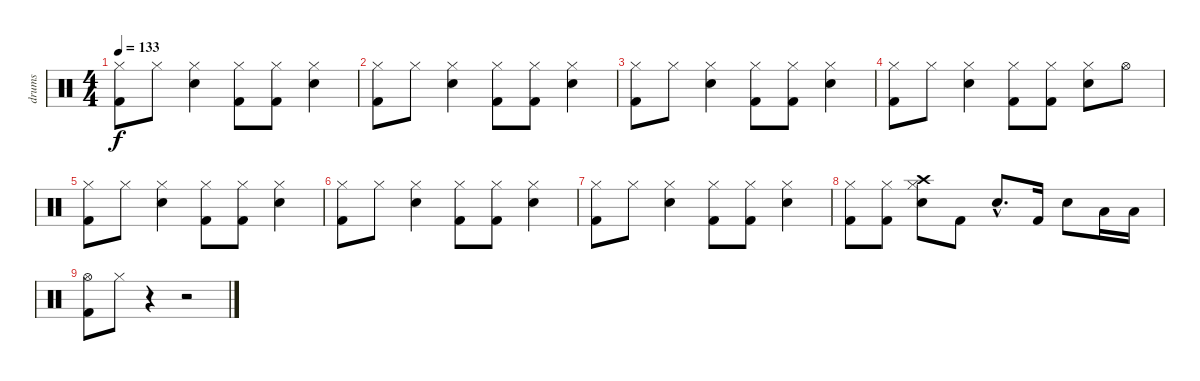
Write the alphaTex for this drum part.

\track ("drums" "drums") {instrument percussion}
\staff {score}
\articulation defaults
\ts (4 4)
\tempo 133
\clef neutral
\ks c
("Hi-Hat (closed)" "Kick (hit) 2").8{dy f} "Hi-Hat (closed)".8 ("Hi-Hat (closed)" "Snare (hit) 2").4 ("Hi-Hat (closed)" "Kick (hit) 2").8 ("Hi-Hat (closed)" "Kick (hit) 2").8 ("Hi-Hat (closed)" "Snare (hit) 2").4 |
("Hi-Hat (closed)" "Kick (hit) 2").8 "Hi-Hat (closed)".8 ("Hi-Hat (closed)" "Snare (hit) 2").4 ("Hi-Hat (closed)" "Kick (hit) 2").8 ("Hi-Hat (closed)" "Kick (hit) 2").8 ("Hi-Hat (closed)" "Snare (hit) 2").4 |
("Hi-Hat (closed)" "Kick (hit) 2").8 "Hi-Hat (closed)".8 ("Hi-Hat (closed)" "Snare (hit) 2").4 ("Hi-Hat (closed)" "Kick (hit) 2").8 ("Hi-Hat (closed)" "Kick (hit) 2").8 ("Hi-Hat (closed)" "Snare (hit) 2").4 |
("Hi-Hat (closed)" "Kick (hit) 2").8 "Hi-Hat (closed)".8 ("Hi-Hat (closed)" "Snare (hit) 2").4 ("Hi-Hat (closed)" "Kick (hit) 2").8 ("Hi-Hat (closed)" "Kick (hit) 2").8 ("Hi-Hat (closed)" "Snare (hit) 2").8 "Hi-Hat (open)".8 |
("Hi-Hat (closed)" "Kick (hit) 2").8 "Hi-Hat (closed)".8 ("Hi-Hat (closed)" "Snare (hit) 2").4 ("Hi-Hat (closed)" "Kick (hit) 2").8 ("Hi-Hat (closed)" "Kick (hit) 2").8 ("Hi-Hat (closed)" "Snare (hit) 2").4 |
("Hi-Hat (closed)" "Kick (hit) 2").8 "Hi-Hat (closed)".8 ("Hi-Hat (closed)" "Snare (hit) 2").4 ("Hi-Hat (closed)" "Kick (hit) 2").8 ("Hi-Hat (closed)" "Kick (hit) 2").8 ("Hi-Hat (closed)" "Snare (hit) 2").4 |
("Hi-Hat (closed)" "Kick (hit) 2").8 "Hi-Hat (closed)".8 ("Hi-Hat (closed)" "Snare (hit) 2").4 ("Hi-Hat (closed)" "Kick (hit) 2").8 ("Hi-Hat (closed)" "Kick (hit) 2").8 ("Hi-Hat (closed)" "Snare (hit) 2").4 |
("Hi-Hat (closed)" "Kick (hit) 2").8 ("Hi-Hat (closed)" "Kick (hit) 2").8 ("Crash high (hit)" "Hi-Hat (closed)" "Snare (hit) 2").8 "Kick (hit) 2".8 "Snare (hit) 2"{hac}.8{d} "Kick (hit) 2".16 "Snare (hit) 2".8 "Low Tom (hit)".16 "Low Tom (hit)".16 |
("Hi-Hat (open)" "Kick (hit) 2").8 "Hi-Hat (closed)".8 r.4 r.2
